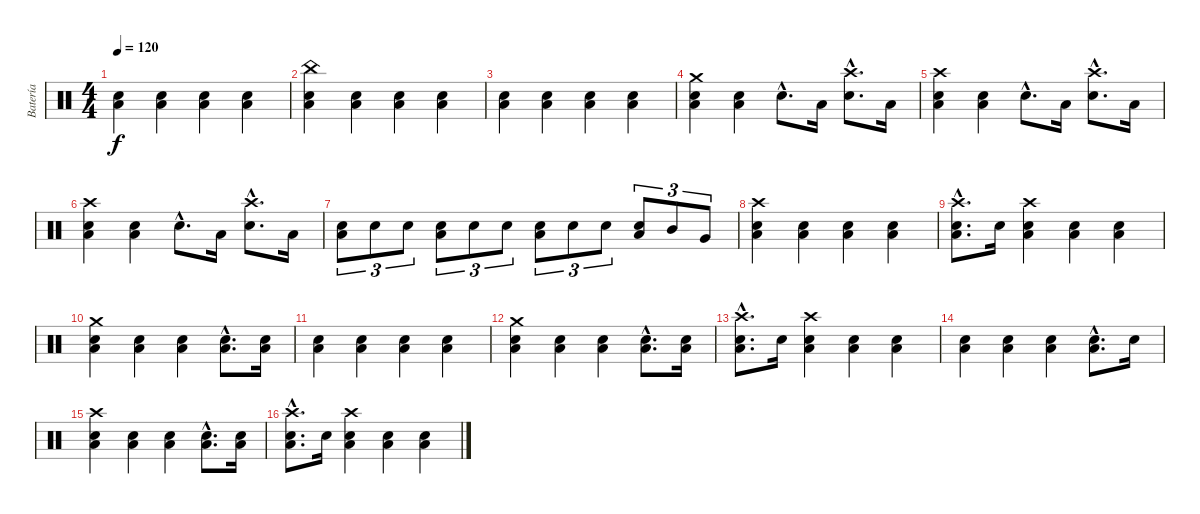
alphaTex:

\track ("Batería" "Batería") {instrument percussion}
\staff {score}
\articulation defaults
\ts (4 4)
\tempo 120
\clef neutral
\ks c
("Low Tom (hit)" "Electric Snare (hit)").4{dy f} ("Low Tom (hit)" "Electric Snare (hit)").4 ("Low Tom (hit)" "Electric Snare (hit)").4 ("Low Tom (hit)" "Electric Snare (hit)").4 |
("China (hit)" "Low Tom (hit)" "Electric Snare (hit)").4 ("Low Tom (hit)" "Electric Snare (hit)").4 ("Low Tom (hit)" "Electric Snare (hit)").4 ("Low Tom (hit)" "Electric Snare (hit)").4 |
("Low Tom (hit)" "Electric Snare (hit)").4 ("Low Tom (hit)" "Electric Snare (hit)").4 ("Low Tom (hit)" "Electric Snare (hit)").4 ("Low Tom (hit)" "Electric Snare (hit)").4 |
("Crash medium (hit)" "Low Tom (hit)" "Electric Snare (hit)").4 ("Low Tom (hit)" "Electric Snare (hit)").4 "Electric Snare (hit)"{hac}.8{d} "Low Tom (hit)".16 ("Crash high (hit)"{hac} "Electric Snare (hit)"{hac}).8{d} "Low Tom (hit)".16 |
("Crash high (hit)" "Low Tom (hit)" "Electric Snare (hit)").4 ("Low Tom (hit)" "Electric Snare (hit)").4 "Electric Snare (hit)"{hac}.8{d} "Low Tom (hit)".16 ("Crash high (hit)"{hac} "Electric Snare (hit)"{hac}).8{d} "Low Tom (hit)".16 |
("Crash high (hit)" "Low Tom (hit)" "Electric Snare (hit)").4 ("Low Tom (hit)" "Electric Snare (hit)").4 "Electric Snare (hit)"{hac}.8{d} "Low Tom (hit)".16 ("Crash high (hit)"{hac} "Electric Snare (hit)"{hac}).8{d} "Low Tom (hit)".16 |
("Low Tom (hit)" "Electric Snare (hit)").8{tu (3 2)} "Electric Snare (hit)".8{tu (3 2)} "Electric Snare (hit)".8{tu (3 2)} ("Low Tom (hit)" "Electric Snare (hit)").8{tu (3 2)} "Electric Snare (hit)".8{tu (3 2)} "Electric Snare (hit)".8{tu (3 2)} ("Low Tom (hit)" "Electric Snare (hit)").8{tu (3 2)} "Electric Snare (hit)".8{tu (3 2)} "Electric Snare (hit)".8{tu (3 2)} ("Low Tom (hit)" "Electric Snare (hit)").8{tu (3 2)} "Mid Tom (hit)".8{tu (3 2)} "Very Low Tom (hit)".8{tu (3 2)} |
("Crash high (hit)" "Low Tom (hit)" "Electric Snare (hit)").4 ("Low Tom (hit)" "Electric Snare (hit)").4 ("Low Tom (hit)" "Electric Snare (hit)").4 ("Low Tom (hit)" "Electric Snare (hit)").4 |
("Crash high (hit)"{hac} "Low Tom (hit)"{hac} "Electric Snare (hit)"{hac}).8{d} "Electric Snare (hit)".16 ("Crash high (hit)" "Low Tom (hit)" "Electric Snare (hit)").4 ("Low Tom (hit)" "Electric Snare (hit)").4 ("Low Tom (hit)" "Electric Snare (hit)").4 |
("Crash medium (hit)" "Low Tom (hit)" "Electric Snare (hit)").4 ("Low Tom (hit)" "Electric Snare (hit)").4 ("Low Tom (hit)" "Electric Snare (hit)").4 ("Low Tom (hit)"{hac} "Electric Snare (hit)"{hac}).8{d} ("Low Tom (hit)" "Electric Snare (hit)").16 |
("Low Tom (hit)" "Electric Snare (hit)").4 ("Low Tom (hit)" "Electric Snare (hit)").4 ("Low Tom (hit)" "Electric Snare (hit)").4 ("Low Tom (hit)" "Electric Snare (hit)").4 |
("Crash medium (hit)" "Low Tom (hit)" "Electric Snare (hit)").4 ("Low Tom (hit)" "Electric Snare (hit)").4 ("Low Tom (hit)" "Electric Snare (hit)").4 ("Low Tom (hit)"{hac} "Electric Snare (hit)"{hac}).8{d} ("Low Tom (hit)" "Electric Snare (hit)").16 |
("Crash high (hit)"{hac} "Low Tom (hit)"{hac} "Electric Snare (hit)"{hac}).8{d} "Electric Snare (hit)".16 ("Crash high (hit)" "Low Tom (hit)" "Electric Snare (hit)").4 ("Low Tom (hit)" "Electric Snare (hit)").4 ("Low Tom (hit)" "Electric Snare (hit)").4 |
("Low Tom (hit)" "Electric Snare (hit)").4 ("Low Tom (hit)" "Electric Snare (hit)").4 ("Low Tom (hit)" "Electric Snare (hit)").4 ("Low Tom (hit)"{hac} "Electric Snare (hit)"{hac}).8{d} "Electric Snare (hit)".16 |
("Crash high (hit)" "Low Tom (hit)" "Electric Snare (hit)").4 ("Low Tom (hit)" "Electric Snare (hit)").4 ("Low Tom (hit)" "Electric Snare (hit)").4 ("Low Tom (hit)"{hac} "Electric Snare (hit)"{hac}).8{d} ("Low Tom (hit)" "Electric Snare (hit)").16 |
("Crash high (hit)"{hac} "Low Tom (hit)"{hac} "Electric Snare (hit)"{hac}).8{d} "Electric Snare (hit)".16 ("Crash high (hit)" "Low Tom (hit)" "Electric Snare (hit)").4 ("Low Tom (hit)" "Electric Snare (hit)").4 ("Low Tom (hit)" "Electric Snare (hit)").4
